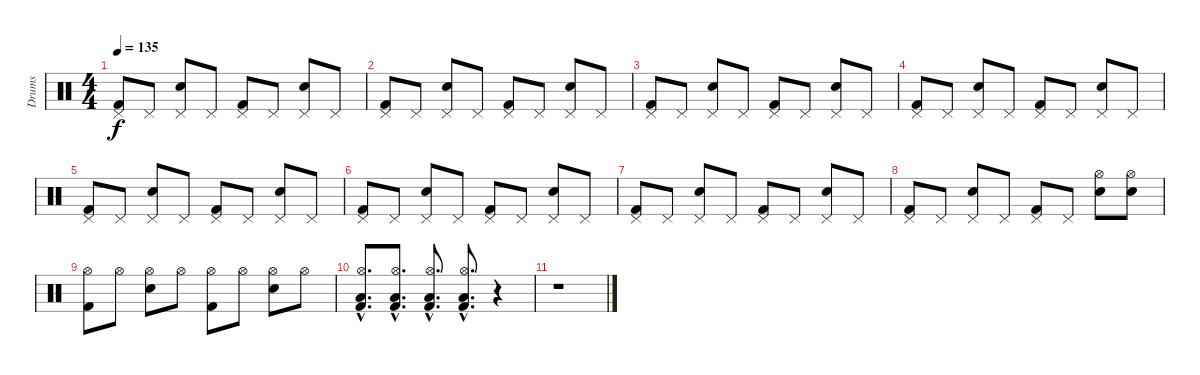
\track ("Drums" "Drums") {instrument percussion}
\staff {score}
\articulation defaults
\ts (4 4)
\tempo 135
\clef neutral
\ks c
("Pedal Hi-Hat (hit)" "Kick (hit) 2").8{dy f} "Pedal Hi-Hat (hit)".8 ("Pedal Hi-Hat (hit)" "Snare (hit) 2").8 "Pedal Hi-Hat (hit)".8 ("Pedal Hi-Hat (hit)" "Kick (hit) 2").8 "Pedal Hi-Hat (hit)".8 ("Pedal Hi-Hat (hit)" "Snare (hit) 2").8 "Pedal Hi-Hat (hit)".8 |
("Pedal Hi-Hat (hit)" "Kick (hit) 2").8 "Pedal Hi-Hat (hit)".8 ("Pedal Hi-Hat (hit)" "Snare (hit) 2").8 "Pedal Hi-Hat (hit)".8 ("Pedal Hi-Hat (hit)" "Kick (hit) 2").8 "Pedal Hi-Hat (hit)".8 ("Pedal Hi-Hat (hit)" "Snare (hit) 2").8 "Pedal Hi-Hat (hit)".8 |
("Pedal Hi-Hat (hit)" "Kick (hit) 2").8 "Pedal Hi-Hat (hit)".8 ("Pedal Hi-Hat (hit)" "Snare (hit) 2").8 "Pedal Hi-Hat (hit)".8 ("Pedal Hi-Hat (hit)" "Kick (hit) 2").8 "Pedal Hi-Hat (hit)".8 ("Pedal Hi-Hat (hit)" "Snare (hit) 2").8 "Pedal Hi-Hat (hit)".8 |
("Pedal Hi-Hat (hit)" "Kick (hit) 2").8 "Pedal Hi-Hat (hit)".8 ("Pedal Hi-Hat (hit)" "Snare (hit) 2").8 "Pedal Hi-Hat (hit)".8 ("Pedal Hi-Hat (hit)" "Kick (hit) 2").8 "Pedal Hi-Hat (hit)".8 ("Pedal Hi-Hat (hit)" "Snare (hit) 2").8 "Pedal Hi-Hat (hit)".8 |
("Pedal Hi-Hat (hit)" "Kick (hit) 2").8 "Pedal Hi-Hat (hit)".8 ("Pedal Hi-Hat (hit)" "Snare (hit) 2").8 "Pedal Hi-Hat (hit)".8 ("Pedal Hi-Hat (hit)" "Kick (hit) 2").8 "Pedal Hi-Hat (hit)".8 ("Pedal Hi-Hat (hit)" "Snare (hit) 2").8 "Pedal Hi-Hat (hit)".8 |
("Pedal Hi-Hat (hit)" "Kick (hit) 2").8 "Pedal Hi-Hat (hit)".8 ("Pedal Hi-Hat (hit)" "Snare (hit) 2").8 "Pedal Hi-Hat (hit)".8 ("Pedal Hi-Hat (hit)" "Kick (hit) 2").8 "Pedal Hi-Hat (hit)".8 ("Pedal Hi-Hat (hit)" "Snare (hit) 2").8 "Pedal Hi-Hat (hit)".8 |
("Pedal Hi-Hat (hit)" "Kick (hit) 2").8 "Pedal Hi-Hat (hit)".8 ("Pedal Hi-Hat (hit)" "Snare (hit) 2").8 "Pedal Hi-Hat (hit)".8 ("Pedal Hi-Hat (hit)" "Kick (hit) 2").8 "Pedal Hi-Hat (hit)".8 ("Pedal Hi-Hat (hit)" "Snare (hit) 2").8 "Pedal Hi-Hat (hit)".8 |
("Pedal Hi-Hat (hit)" "Kick (hit) 2").8 "Pedal Hi-Hat (hit)".8 ("Pedal Hi-Hat (hit)" "Snare (hit) 2").8 "Pedal Hi-Hat (hit)".8 ("Pedal Hi-Hat (hit)" "Kick (hit) 2").8 "Pedal Hi-Hat (hit)".8 ("Hi-Hat (open)" "Snare (hit) 2").8 ("Hi-Hat (open)" "Snare (hit) 2").8 |
("Hi-Hat (open)" "Kick (hit) 2").8 "Hi-Hat (open)".8 ("Hi-Hat (open)" "Snare (hit) 2").8 "Hi-Hat (open)".8 ("Hi-Hat (open)" "Kick (hit) 2").8 "Hi-Hat (open)".8 ("Hi-Hat (open)" "Snare (hit) 2").8 "Hi-Hat (open)".8 |
("Hi-Hat (open)"{hac} "Low Floor Tom (hit)"{hac} "Kick (hit) 2"{hac}).8{d} ("Hi-Hat (open)"{hac} "Low Floor Tom (hit)"{hac} "Kick (hit) 2"{hac}).8{d} ("Hi-Hat (open)"{hac} "Low Floor Tom (hit)"{hac} "Kick (hit) 2"{hac}).8{d} ("Hi-Hat (open)"{hac} "Low Floor Tom (hit)"{hac} "Kick (hit) 2"{hac}).8{d} r.4 |
r.1
